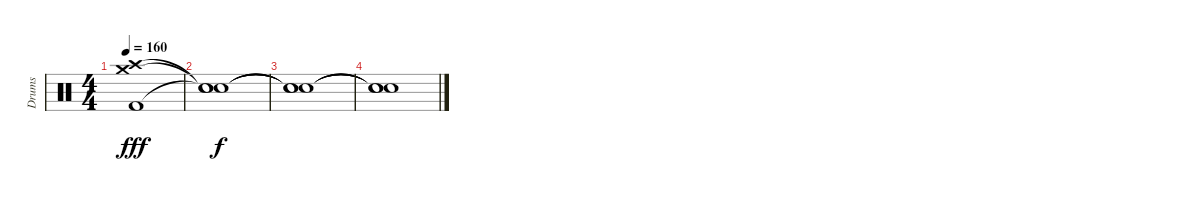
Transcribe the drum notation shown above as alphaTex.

\track ("Drums" "Drums") {instrument percussion}
\staff {score}
\articulation defaults
\ts (4 4)
\tempo 160
\clef neutral
\ks c
("Crash high (hit)" "Crash medium (hit)" "Kick (hit) 2").1{dy fff} |
("Snare (hit)"{t} "Snare (hit)"{t} "Snare (hit)"{t}).1{dy f} |
("Snare (hit)"{t} "Snare (hit)"{t} "Snare (hit)"{t}).1 |
("Snare (hit)"{t} "Snare (hit)"{t} "Snare (hit)"{t}).1
